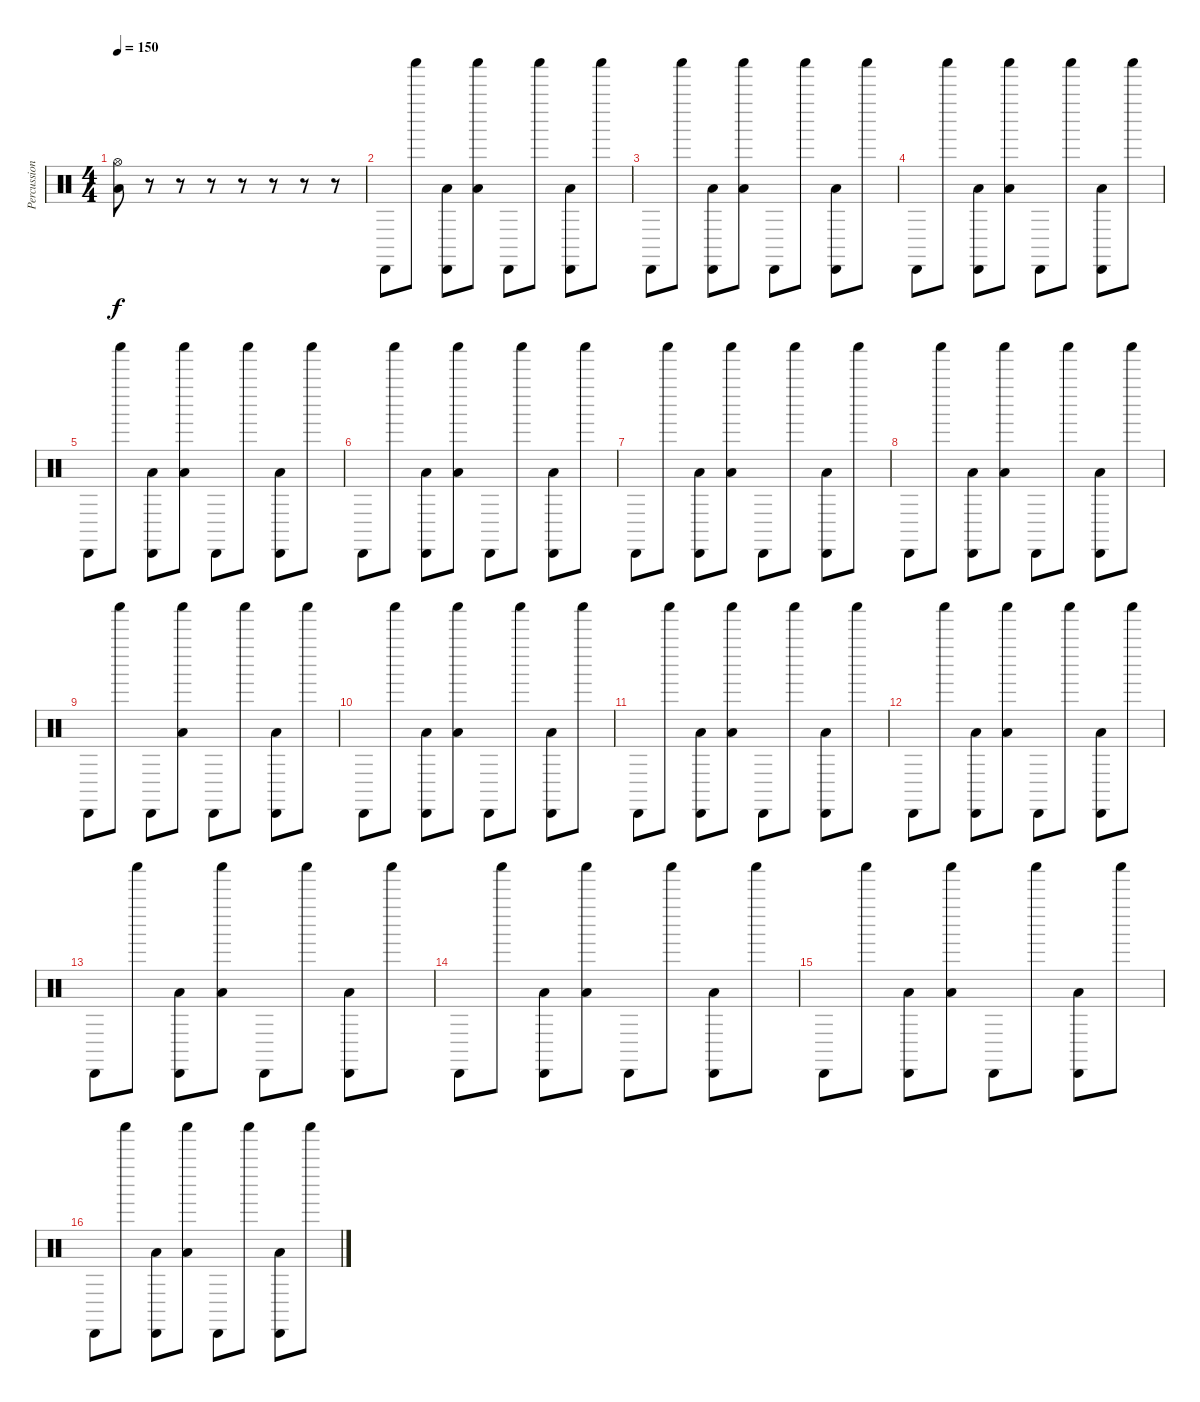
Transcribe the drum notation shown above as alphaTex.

\track ("Percussion" "Percussion") {instrument percussion}
\staff
\articulation defaults
\ts (4 4)
\tempo 150
\clef neutral
\ks c
("Hi-Hat (open)" "Low Floor Tom (hit)").8{dy f} r.8 r.8 r.8 r.8 r.8 r.8 r.8 |
"Cabasa (hit)".8 "Shaker (hit)".8 ("Cabasa (hit)" "Low Floor Tom (hit)").8 ("Shaker (hit)" "Low Floor Tom (hit)").8 "Cabasa (hit)".8 "Shaker (hit)".8 ("Cabasa (hit)" "Low Floor Tom (hit)").8 "Shaker (hit)".8 |
"Cabasa (hit)".8 "Shaker (hit)".8 ("Cabasa (hit)" "Low Floor Tom (hit)").8 ("Shaker (hit)" "Low Floor Tom (hit)").8 "Cabasa (hit)".8 "Shaker (hit)".8 ("Cabasa (hit)" "Low Floor Tom (hit)").8 "Shaker (hit)".8 |
"Cabasa (hit)".8 "Shaker (hit)".8 ("Cabasa (hit)" "Low Floor Tom (hit)").8 ("Shaker (hit)" "Low Floor Tom (hit)").8 "Cabasa (hit)".8 "Shaker (hit)".8 ("Cabasa (hit)" "Low Floor Tom (hit)").8 "Shaker (hit)".8 |
"Cabasa (hit)".8 "Shaker (hit)".8 ("Cabasa (hit)" "Low Floor Tom (hit)").8 ("Shaker (hit)" "Low Floor Tom (hit)").8 "Cabasa (hit)".8 "Shaker (hit)".8 ("Cabasa (hit)" "Low Floor Tom (hit)").8 "Shaker (hit)".8 |
"Cabasa (hit)".8 "Shaker (hit)".8 ("Cabasa (hit)" "Low Floor Tom (hit)").8 ("Shaker (hit)" "Low Floor Tom (hit)").8 "Cabasa (hit)".8 "Shaker (hit)".8 ("Cabasa (hit)" "Low Floor Tom (hit)").8 "Shaker (hit)".8 |
"Cabasa (hit)".8 "Shaker (hit)".8 ("Cabasa (hit)" "Low Floor Tom (hit)").8 ("Shaker (hit)" "Low Floor Tom (hit)").8 "Cabasa (hit)".8 "Shaker (hit)".8 ("Cabasa (hit)" "Low Floor Tom (hit)").8 "Shaker (hit)".8 |
"Cabasa (hit)".8 "Shaker (hit)".8 ("Cabasa (hit)" "Low Floor Tom (hit)").8 ("Shaker (hit)" "Low Floor Tom (hit)").8 "Cabasa (hit)".8 "Shaker (hit)".8 ("Cabasa (hit)" "Low Floor Tom (hit)").8 "Shaker (hit)".8 |
"Cabasa (hit)".8 "Shaker (hit)".8 "Cabasa (hit)".8 ("Shaker (hit)" "Low Floor Tom (hit)").8 "Cabasa (hit)".8 "Shaker (hit)".8 ("Cabasa (hit)" "Low Floor Tom (hit)").8 "Shaker (hit)".8 |
"Cabasa (hit)".8 "Shaker (hit)".8 ("Cabasa (hit)" "Low Floor Tom (hit)").8 ("Shaker (hit)" "Low Floor Tom (hit)").8 "Cabasa (hit)".8 "Shaker (hit)".8 ("Cabasa (hit)" "Low Floor Tom (hit)").8 "Shaker (hit)".8 |
"Cabasa (hit)".8 "Shaker (hit)".8 ("Cabasa (hit)" "Low Floor Tom (hit)").8 ("Shaker (hit)" "Low Floor Tom (hit)").8 "Cabasa (hit)".8 "Shaker (hit)".8 ("Cabasa (hit)" "Low Floor Tom (hit)").8 "Shaker (hit)".8 |
"Cabasa (hit)".8 "Shaker (hit)".8 ("Cabasa (hit)" "Low Floor Tom (hit)").8 ("Shaker (hit)" "Low Floor Tom (hit)").8 "Cabasa (hit)".8 "Shaker (hit)".8 ("Cabasa (hit)" "Low Floor Tom (hit)").8 "Shaker (hit)".8 |
"Cabasa (hit)".8 "Shaker (hit)".8 ("Cabasa (hit)" "Low Floor Tom (hit)").8 ("Shaker (hit)" "Low Floor Tom (hit)").8 "Cabasa (hit)".8 "Shaker (hit)".8 ("Cabasa (hit)" "Low Floor Tom (hit)").8 "Shaker (hit)".8 |
"Cabasa (hit)".8 "Shaker (hit)".8 ("Cabasa (hit)" "Low Floor Tom (hit)").8 ("Shaker (hit)" "Low Floor Tom (hit)").8 "Cabasa (hit)".8 "Shaker (hit)".8 ("Cabasa (hit)" "Low Floor Tom (hit)").8 "Shaker (hit)".8 |
"Cabasa (hit)".8 "Shaker (hit)".8 ("Cabasa (hit)" "Low Floor Tom (hit)").8 ("Shaker (hit)" "Low Floor Tom (hit)").8 "Cabasa (hit)".8 "Shaker (hit)".8 ("Cabasa (hit)" "Low Floor Tom (hit)").8 "Shaker (hit)".8 |
"Cabasa (hit)".8 "Shaker (hit)".8 ("Cabasa (hit)" "Low Floor Tom (hit)").8 ("Shaker (hit)" "Low Floor Tom (hit)").8 "Cabasa (hit)".8 "Shaker (hit)".8 ("Cabasa (hit)" "Low Floor Tom (hit)").8 "Shaker (hit)".8
